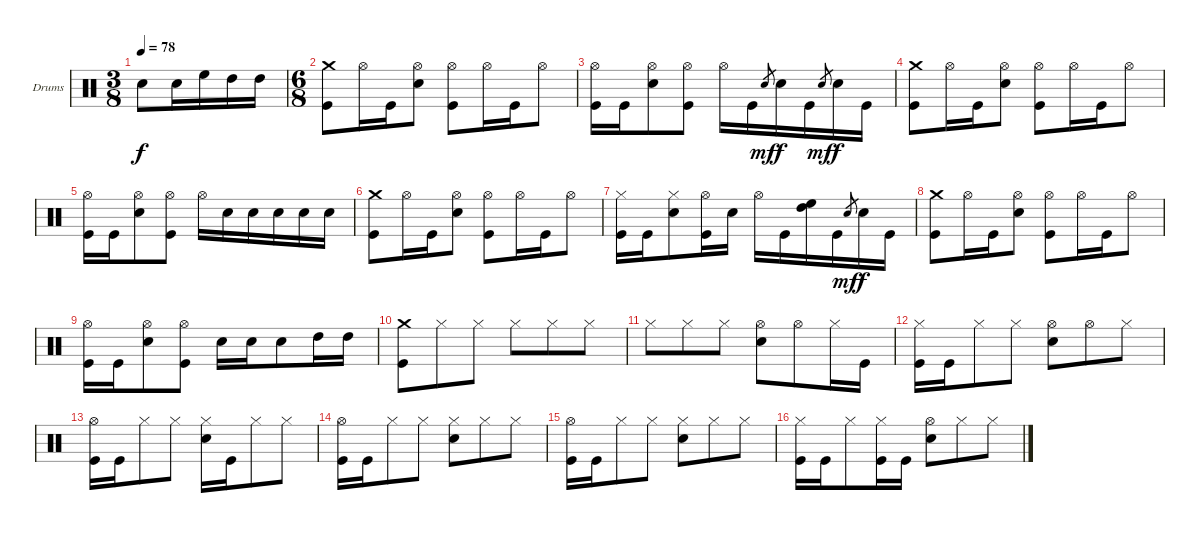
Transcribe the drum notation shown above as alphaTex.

\defaultSystemsLayout 4
\bracketExtendMode groupsimilarinstruments
\firstSystemTrackNameOrientation horizontal
\otherSystemsTrackNameOrientation horizontal
\track ("Drums" "Drums") {instrument percussion}
\staff {score}
\articulation defaults
\ts (3 8)
\tempo 78
\clef neutral
\scale
0.391473
\ks c "Snare (hit) 2".8{dy f} "Snare (hit) 2".16 "High Floor Tom (hit)".16 "High Tom (hit)".16 "High Tom (hit)".16
|
\ts (6 8)
\scale
0.391473 ("Crash medium (hit)" "Kick (hit)").8 "Hi-Hat (open)".16 "Kick (hit)".16 ("Hi-Hat (open)" "Snare (hit) 2").8 ("Hi-Hat (open)" "Kick (hit)").8 "Hi-Hat (open)".16 "Kick (hit)".16 "Hi-Hat (open)".8 |
\scale
0.217054 ("Hi-Hat (open)" "Kick (hit)").16 "Kick (hit)".16 ("Hi-Hat (open)" "Snare (hit) 2").8 ("Hi-Hat (open)" "Kick (hit)").8 "Hi-Hat (open)".16 "Kick (hit)".16 "Snare (hit) 2".8{gr dy mf} "Snare (hit) 2".16{dy f} "Kick (hit)".16 "Snare (hit) 2".8{gr dy mf} "Snare (hit) 2".16{dy f} "Kick (hit)".16 |
\scale
0.333333 ("Crash medium (hit)" "Kick (hit)").8 "Hi-Hat (open)".16 "Kick (hit)".16 ("Hi-Hat (open)" "Snare (hit) 2").8 ("Hi-Hat (open)" "Kick (hit)").8 "Hi-Hat (open)".16 "Kick (hit)".16 "Hi-Hat (open)".8 |
\scale
0.333333 ("Hi-Hat (open)" "Kick (hit)").16 "Kick (hit)".16 ("Hi-Hat (open)" "Snare (hit) 2").8 ("Hi-Hat (open)" "Kick (hit)").8 "Hi-Hat (open)".16 "Snare (hit) 2".16 "Snare (hit) 2".16 "Snare (hit) 2".16 "Snare (hit) 2".16 "Snare (hit) 2".16 |
\scale
0.333333 ("Crash medium (hit)" "Kick (hit)").8 "Hi-Hat (open)".16 "Kick (hit)".16 ("Hi-Hat (open)" "Snare (hit) 2").8 ("Hi-Hat (open)" "Kick (hit)").8 "Hi-Hat (open)".16 "Kick (hit)".16 "Hi-Hat (open)".8 |
\scale
0.333333 ("Hi-Hat (closed)" "Kick (hit)").16 "Kick (hit)".16 ("Hi-Hat (closed)" "Snare (hit) 2").8 ("Hi-Hat (open)" "Kick (hit)").16 "Snare (hit) 2".16 "Hi-Hat (open)".16 "Kick (hit)".16 ("High Floor Tom (hit)" "High Tom (hit)").16 "Kick (hit)".16 "Snare (hit) 2".8{gr dy mf} "Snare (hit) 2".16{dy f} "Kick (hit)".16 |
\scale
0.333333 ("Crash medium (hit)" "Kick (hit)").8 "Hi-Hat (open)".16 "Kick (hit)".16 ("Hi-Hat (open)" "Snare (hit) 2").8 ("Hi-Hat (open)" "Kick (hit)").8 "Hi-Hat (open)".16 "Kick (hit)".16 "Hi-Hat (open)".8 |
\scale
0.333333 ("Hi-Hat (open)" "Kick (hit)").16 "Kick (hit)".16 ("Hi-Hat (open)" "Snare (hit) 2").8 ("Hi-Hat (open)" "Kick (hit)").8 "Snare (hit) 2".16 "Snare (hit) 2".16 "Snare (hit) 2".8 "High Tom (hit)".16 "High Tom (hit)".16 |
\scale
0.333333 ("Crash medium (hit)" "Kick (hit)").8 "Hi-Hat (closed)".8 "Hi-Hat (closed)".8 "Hi-Hat (closed)".8 "Hi-Hat (closed)".8 "Hi-Hat (closed)".8 |
\scale
0.333333 "Hi-Hat (closed)".8 "Hi-Hat (closed)".8 "Hi-Hat (closed)".8 ("Hi-Hat (open)" "Snare (hit) 2").8 "Hi-Hat (open)".8 "Hi-Hat (closed)".16 "Kick (hit)".16 |
\scale
0.333333 ("Hi-Hat (closed)" "Kick (hit)").16 "Kick (hit)".16 "Hi-Hat (closed)".8 "Hi-Hat (closed)".8 ("Hi-Hat (open)" "Snare (hit) 2").8 "Hi-Hat (open)".8 "Hi-Hat (closed)".8 |
\scale
0.333333 ("Hi-Hat (open)" "Kick (hit)").16 "Kick (hit)".16 "Hi-Hat (closed)".8 "Hi-Hat (closed)".8 ("Hi-Hat (closed)" "Snare (hit) 2").16 "Kick (hit)".16 "Hi-Hat (closed)".8 "Hi-Hat (closed)".8 |
\scale
0.333333 ("Hi-Hat (open)" "Kick (hit)").16 "Kick (hit)".16 "Hi-Hat (closed)".8 "Hi-Hat (closed)".8 ("Hi-Hat (closed)" "Snare (hit) 2").8 "Hi-Hat (closed)".8 "Hi-Hat (closed)".8 |
\scale
0.333333 ("Hi-Hat (open)" "Kick (hit)").16 "Kick (hit)".16 "Hi-Hat (closed)".8 "Hi-Hat (closed)".8 ("Hi-Hat (closed)" "Snare (hit) 2").8 "Hi-Hat (closed)".8 "Hi-Hat (closed)".8 |
\scale
0.333333 ("Hi-Hat (closed)" "Kick (hit)").16 "Kick (hit)".16 "Hi-Hat (closed)".8 ("Hi-Hat (closed)" "Kick (hit)").16 "Kick (hit)".16 ("Hi-Hat (open)" "Snare (hit) 2").8 "Hi-Hat (closed)".8 "Hi-Hat (closed)".8
